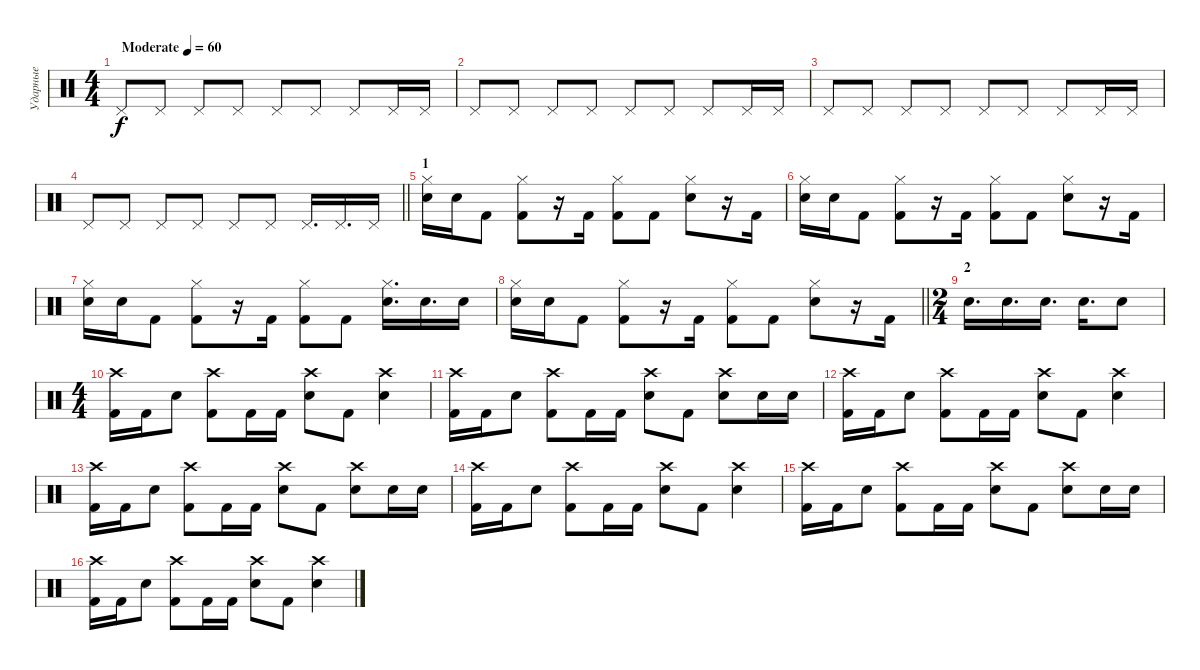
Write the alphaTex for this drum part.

\track ("Ударные" "Ударные") {instrument percussion}
\staff {score}
\articulation defaults
\ts (4 4)
\tempo (60 "Moderate")
\clef neutral
\ks c "Pedal Hi-Hat (hit)".8{dy f} "Pedal Hi-Hat (hit)".8 "Pedal Hi-Hat (hit)".8 "Pedal Hi-Hat (hit)".8 "Pedal Hi-Hat (hit)".8 "Pedal Hi-Hat (hit)".8 "Pedal Hi-Hat (hit)".8 "Pedal Hi-Hat (hit)".16 "Pedal Hi-Hat (hit)".16
|
"Pedal Hi-Hat (hit)".8 "Pedal Hi-Hat (hit)".8 "Pedal Hi-Hat (hit)".8 "Pedal Hi-Hat (hit)".8 "Pedal Hi-Hat (hit)".8 "Pedal Hi-Hat (hit)".8 "Pedal Hi-Hat (hit)".8 "Pedal Hi-Hat (hit)".16 "Pedal Hi-Hat (hit)".16 |
"Pedal Hi-Hat (hit)".8 "Pedal Hi-Hat (hit)".8 "Pedal Hi-Hat (hit)".8 "Pedal Hi-Hat (hit)".8 "Pedal Hi-Hat (hit)".8 "Pedal Hi-Hat (hit)".8 "Pedal Hi-Hat (hit)".8 "Pedal Hi-Hat (hit)".16 "Pedal Hi-Hat (hit)".16 |
\barLineRight lightlight "Pedal Hi-Hat (hit)".8 "Pedal Hi-Hat (hit)".8 "Pedal Hi-Hat (hit)".8 "Pedal Hi-Hat (hit)".8 "Pedal Hi-Hat (hit)".8 "Pedal Hi-Hat (hit)".8 "Pedal Hi-Hat (hit)".16{d} "Pedal Hi-Hat (hit)".16{d} "Pedal Hi-Hat (hit)".16
|
\section ("" "1")
("Hi-Hat (closed)" "Snare (hit) 2").16 "Snare (hit) 2".16 "Kick (hit) 2".8 ("Hi-Hat (closed)" "Kick (hit) 2").8 r.16 "Kick (hit) 2".16 ("Hi-Hat (closed)" "Kick (hit) 2").8 "Kick (hit) 2".8 ("Hi-Hat (closed)" "Snare (hit) 2").8 r.16 "Kick (hit) 2".16 |
("Hi-Hat (closed)" "Snare (hit) 2").16 "Snare (hit) 2".16 "Kick (hit) 2".8 ("Hi-Hat (closed)" "Kick (hit) 2").8 r.16 "Kick (hit) 2".16 ("Hi-Hat (closed)" "Kick (hit) 2").8 "Kick (hit) 2".8 ("Hi-Hat (closed)" "Snare (hit) 2").8 r.16 "Kick (hit) 2".16 |
("Hi-Hat (closed)" "Snare (hit) 2").16 "Snare (hit) 2".16 "Kick (hit) 2".8 ("Hi-Hat (closed)" "Kick (hit) 2").8 r.16 "Kick (hit) 2".16 ("Hi-Hat (closed)" "Kick (hit) 2").8 "Kick (hit) 2".8 ("Hi-Hat (closed)" "Snare (hit) 2").16{d} "Snare (hit) 2".16{d} "Snare (hit) 2".16 |
\barLineRight lightlight
("Hi-Hat (closed)" "Snare (hit) 2").16 "Snare (hit) 2".16 "Kick (hit) 2".8 ("Hi-Hat (closed)" "Kick (hit) 2").8 r.16 "Kick (hit) 2".16 ("Hi-Hat (closed)" "Kick (hit) 2").8 "Kick (hit) 2".8 ("Hi-Hat (closed)" "Snare (hit) 2").8 r.16 "Kick (hit) 2".16 |
\ts (2 4)
\section ("" "2")
"Snare (hit) 2".16{d} "Snare (hit) 2".16{d} "Snare (hit) 2".16{d} "Snare (hit) 2".16{d} "Snare (hit) 2".8 |
\ts (4 4)
("Crash high (hit)" "Kick (hit) 2").16 "Kick (hit) 2".16 "Snare (hit) 2".8 ("Crash high (hit)" "Kick (hit) 2").8 "Kick (hit) 2".16 "Kick (hit) 2".16 ("Crash high (hit)" "Snare (hit) 2").8 "Kick (hit) 2".8 ("Crash high (hit)" "Snare (hit) 2").4 |
("Crash high (hit)" "Kick (hit) 2").16 "Kick (hit) 2".16 "Snare (hit) 2".8 ("Crash high (hit)" "Kick (hit) 2").8 "Kick (hit) 2".16 "Kick (hit) 2".16 ("Crash high (hit)" "Snare (hit) 2").8 "Kick (hit) 2".8 ("Crash high (hit)" "Snare (hit) 2").8 "Snare (hit) 2".16 "Snare (hit) 2".16 |
("Crash high (hit)" "Kick (hit) 2").16 "Kick (hit) 2".16 "Snare (hit) 2".8 ("Crash high (hit)" "Kick (hit) 2").8 "Kick (hit) 2".16 "Kick (hit) 2".16 ("Crash high (hit)" "Snare (hit) 2").8 "Kick (hit) 2".8 ("Crash high (hit)" "Snare (hit) 2").4 |
("Crash high (hit)" "Kick (hit) 2").16 "Kick (hit) 2".16 "Snare (hit) 2".8 ("Crash high (hit)" "Kick (hit) 2").8 "Kick (hit) 2".16 "Kick (hit) 2".16 ("Crash high (hit)" "Snare (hit) 2").8 "Kick (hit) 2".8 ("Crash high (hit)" "Snare (hit) 2").8 "Snare (hit) 2".16 "Snare (hit) 2".16 |
("Crash high (hit)" "Kick (hit) 2").16 "Kick (hit) 2".16 "Snare (hit) 2".8 ("Crash high (hit)" "Kick (hit) 2").8 "Kick (hit) 2".16 "Kick (hit) 2".16 ("Crash high (hit)" "Snare (hit) 2").8 "Kick (hit) 2".8 ("Crash high (hit)" "Snare (hit) 2").4 |
("Crash high (hit)" "Kick (hit) 2").16 "Kick (hit) 2".16 "Snare (hit) 2".8 ("Crash high (hit)" "Kick (hit) 2").8 "Kick (hit) 2".16 "Kick (hit) 2".16 ("Crash high (hit)" "Snare (hit) 2").8 "Kick (hit) 2".8 ("Crash high (hit)" "Snare (hit) 2").8 "Snare (hit) 2".16 "Snare (hit) 2".16 |
("Crash high (hit)" "Kick (hit) 2").16 "Kick (hit) 2".16 "Snare (hit) 2".8 ("Crash high (hit)" "Kick (hit) 2").8 "Kick (hit) 2".16 "Kick (hit) 2".16 ("Crash high (hit)" "Snare (hit) 2").8 "Kick (hit) 2".8 ("Crash high (hit)" "Snare (hit) 2").4
